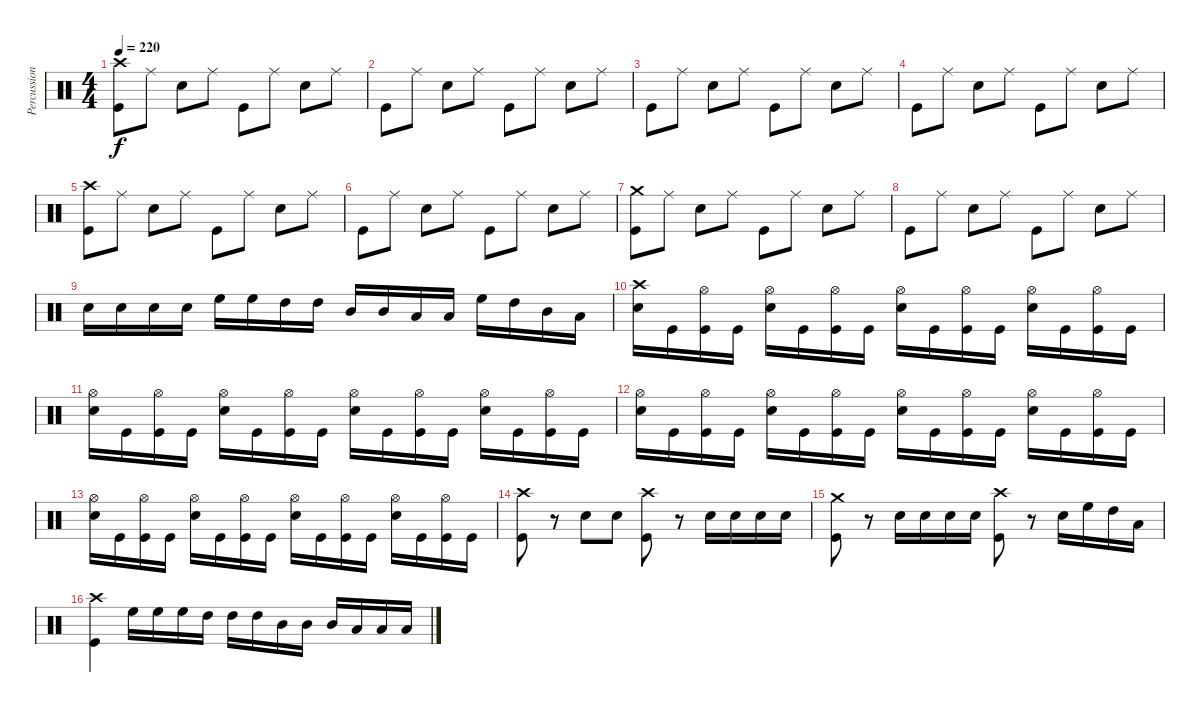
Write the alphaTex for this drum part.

\track ("Percussions" "Percussion") {instrument percussion}
\staff {score}
\articulation defaults
\ts (4 4)
\tempo 220
\clef neutral
\ks c
("Crash high (hit)" "Kick (hit)").8{dy f} "Ride (middle)".8 "Electric Snare (hit)".8 "Ride (middle)".8 "Kick (hit)".8 "Ride (middle)".8 "Electric Snare (hit)".8 "Ride (middle)".8 |
"Kick (hit)".8 "Ride (middle)".8 "Electric Snare (hit)".8 "Ride (middle)".8 "Kick (hit)".8 "Ride (middle)".8 "Electric Snare (hit)".8 "Ride (middle)".8 |
"Kick (hit)".8 "Ride (middle)".8 "Electric Snare (hit)".8 "Ride (middle)".8 "Kick (hit)".8 "Ride (middle)".8 "Electric Snare (hit)".8 "Ride (middle)".8 |
"Kick (hit)".8 "Ride (middle)".8 "Electric Snare (hit)".8 "Ride (middle)".8 "Kick (hit)".8 "Ride (middle)".8 "Electric Snare (hit)".8 "Ride (middle)".8 |
("Crash high (hit)" "Kick (hit)").8 "Ride (middle)".8 "Electric Snare (hit)".8 "Ride (middle)".8 "Kick (hit)".8 "Ride (middle)".8 "Electric Snare (hit)".8 "Ride (middle)".8 |
"Kick (hit)".8 "Ride (middle)".8 "Electric Snare (hit)".8 "Ride (middle)".8 "Kick (hit)".8 "Ride (middle)".8 "Electric Snare (hit)".8 "Ride (middle)".8 |
("Crash medium (hit)" "Kick (hit)").8 "Ride (middle)".8 "Electric Snare (hit)".8 "Ride (middle)".8 "Kick (hit)".8 "Ride (middle)".8 "Electric Snare (hit)".8 "Ride (middle)".8 |
"Kick (hit)".8 "Ride (middle)".8 "Electric Snare (hit)".8 "Ride (middle)".8 "Kick (hit)".8 "Ride (middle)".8 "Electric Snare (hit)".8 "Ride (middle)".8 |
"Electric Snare (hit)".16 "Electric Snare (hit)".16 "Electric Snare (hit)".16 "Electric Snare (hit)".16 "High Floor Tom (hit)".16 "High Floor Tom (hit)".16 "High Tom (hit)".16 "High Tom (hit)".16 "Mid Tom (hit)".16 "Mid Tom (hit)".16 "Low Tom (hit)".16 "Low Tom (hit)".16 "High Floor Tom (hit)".16 "High Tom (hit)".16 "Mid Tom (hit)".16 "Low Tom (hit)".16 |
("Crash high (hit)" "Electric Snare (hit)").16 "Kick (hit)".16 ("Hi-Hat (open)" "Kick (hit)").16 "Kick (hit)".16 ("Hi-Hat (open)" "Electric Snare (hit)").16 "Kick (hit)".16 ("Hi-Hat (open)" "Kick (hit)").16 "Kick (hit)".16 ("Hi-Hat (open)" "Electric Snare (hit)").16 "Kick (hit)".16 ("Hi-Hat (open)" "Kick (hit)").16 "Kick (hit)".16 ("Hi-Hat (open)" "Electric Snare (hit)").16 "Kick (hit)".16 ("Hi-Hat (open)" "Kick (hit)").16 "Kick (hit)".16 |
("Hi-Hat (open)" "Electric Snare (hit)").16 "Kick (hit)".16 ("Hi-Hat (open)" "Kick (hit)").16 "Kick (hit)".16 ("Hi-Hat (open)" "Electric Snare (hit)").16 "Kick (hit)".16 ("Hi-Hat (open)" "Kick (hit)").16 "Kick (hit)".16 ("Hi-Hat (open)" "Electric Snare (hit)").16 "Kick (hit)".16 ("Hi-Hat (open)" "Kick (hit)").16 "Kick (hit)".16 ("Hi-Hat (open)" "Electric Snare (hit)").16 "Kick (hit)".16 ("Hi-Hat (open)" "Kick (hit)").16 "Kick (hit)".16 |
("Hi-Hat (open)" "Electric Snare (hit)").16 "Kick (hit)".16 ("Hi-Hat (open)" "Kick (hit)").16 "Kick (hit)".16 ("Hi-Hat (open)" "Electric Snare (hit)").16 "Kick (hit)".16 ("Hi-Hat (open)" "Kick (hit)").16 "Kick (hit)".16 ("Hi-Hat (open)" "Electric Snare (hit)").16 "Kick (hit)".16 ("Hi-Hat (open)" "Kick (hit)").16 "Kick (hit)".16 ("Hi-Hat (open)" "Electric Snare (hit)").16 "Kick (hit)".16 ("Hi-Hat (open)" "Kick (hit)").16 "Kick (hit)".16 |
("Hi-Hat (open)" "Electric Snare (hit)").16 "Kick (hit)".16 ("Hi-Hat (open)" "Kick (hit)").16 "Kick (hit)".16 ("Hi-Hat (open)" "Electric Snare (hit)").16 "Kick (hit)".16 ("Hi-Hat (open)" "Kick (hit)").16 "Kick (hit)".16 ("Hi-Hat (open)" "Electric Snare (hit)").16 "Kick (hit)".16 ("Hi-Hat (open)" "Kick (hit)").16 "Kick (hit)".16 ("Hi-Hat (open)" "Electric Snare (hit)").16 "Kick (hit)".16 ("Hi-Hat (open)" "Kick (hit)").16 "Kick (hit)".16 |
("Crash high (hit)" "Kick (hit)").8 r.8 "Electric Snare (hit)".8 "Electric Snare (hit)".8 ("Crash high (hit)" "Kick (hit)").8 r.8 "Electric Snare (hit)".16 "Electric Snare (hit)".16 "Electric Snare (hit)".16 "Electric Snare (hit)".16 |
("Crash medium (hit)" "Kick (hit)").8 r.8 "Electric Snare (hit)".16 "Electric Snare (hit)".16 "Electric Snare (hit)".16 "Electric Snare (hit)".16 ("Crash high (hit)" "Kick (hit)").8 r.8 "Electric Snare (hit)".16 "High Floor Tom (hit)".16 "High Tom (hit)".16 "Low Tom (hit)".16 |
("Crash high (hit)" "Kick (hit)").4 "High Floor Tom (hit)".16 "High Floor Tom (hit)".16 "High Floor Tom (hit)".16 "High Tom (hit)".16 "High Tom (hit)".16 "High Tom (hit)".16 "Mid Tom (hit)".16 "Mid Tom (hit)".16 "Mid Tom (hit)".16 "Low Tom (hit)".16 "Low Tom (hit)".16 "Low Tom (hit)".16
